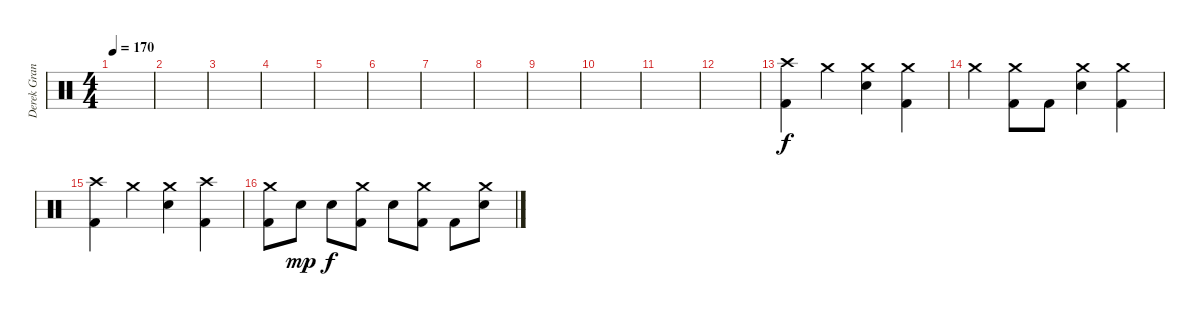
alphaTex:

\track ("Derek Grant" "Derek Gran") {instrument percussion}
\staff {score}
\articulation defaults
\ts (4 4)
\tempo 170
\clef neutral
\ks c
|
|
|
|
|
|
|
|
|
|
|
|
("Crash high (hit)" "Kick (hit) 2").4 "Crash medium (hit)".4 ("Crash medium (hit)" "Snare (hit) 2").4 ("Crash medium (hit)" "Kick (hit) 2").4 |
"Crash medium (hit)".4 ("Crash medium (hit)" "Kick (hit) 2").8 "Kick (hit) 2".8 ("Crash medium (hit)" "Snare (hit) 2").4 ("Crash medium (hit)" "Kick (hit) 2").4 |
("Crash high (hit)" "Kick (hit) 2").4 "Crash medium (hit)".4 ("Crash medium (hit)" "Snare (hit) 2").4 ("Crash high (hit)" "Kick (hit) 2").4 |
("Crash medium (hit)" "Kick (hit) 2").8 "Snare (hit) 2".8{dy mp} "Snare (hit) 2".8{dy f} ("Crash medium (hit)" "Kick (hit) 2").8 "Snare (hit) 2".8 ("Crash medium (hit)" "Kick (hit) 2").8 "Kick (hit) 2".8 ("Crash medium (hit)" "Snare (hit) 2").8
